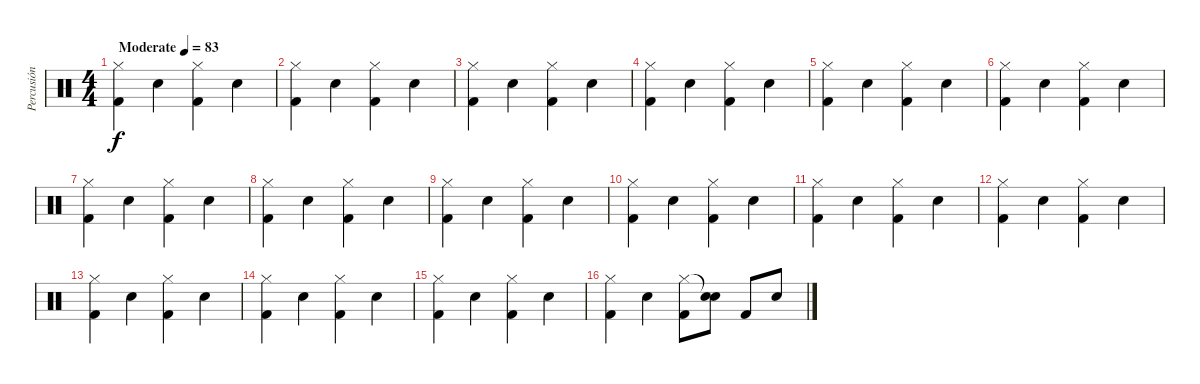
\track ("Percusión" "Percusión") {instrument percussion}
\staff {score}
\articulation defaults
\ts (4 4)
\tempo (83 "Moderate")
\clef neutral
\ks c
("Hi-Hat (closed)" "Kick (hit) 2").4{dy f} "Snare (hit) 2".4 ("Hi-Hat (closed)" "Kick (hit) 2").4 "Snare (hit) 2".4 |
("Hi-Hat (closed)" "Kick (hit) 2").4 "Snare (hit) 2".4 ("Hi-Hat (closed)" "Kick (hit) 2").4 "Snare (hit) 2".4 |
("Hi-Hat (closed)" "Kick (hit) 2").4 "Snare (hit) 2".4 ("Hi-Hat (closed)" "Kick (hit) 2").4 "Snare (hit) 2".4 |
("Hi-Hat (closed)" "Kick (hit) 2").4 "Snare (hit) 2".4 ("Hi-Hat (closed)" "Kick (hit) 2").4 "Snare (hit) 2".4 |
("Hi-Hat (closed)" "Kick (hit) 2").4 "Snare (hit) 2".4 ("Hi-Hat (closed)" "Kick (hit) 2").4 "Snare (hit) 2".4 |
("Hi-Hat (closed)" "Kick (hit) 2").4 "Snare (hit) 2".4 ("Hi-Hat (closed)" "Kick (hit) 2").4 "Snare (hit) 2".4 |
("Hi-Hat (closed)" "Kick (hit) 2").4 "Snare (hit) 2".4 ("Hi-Hat (closed)" "Kick (hit) 2").4 "Snare (hit) 2".4 |
("Hi-Hat (closed)" "Kick (hit) 2").4 "Snare (hit) 2".4 ("Hi-Hat (closed)" "Kick (hit) 2").4 "Snare (hit) 2".4 |
("Hi-Hat (closed)" "Kick (hit) 2").4 "Snare (hit) 2".4 ("Hi-Hat (closed)" "Kick (hit) 2").4 "Snare (hit) 2".4 |
("Hi-Hat (closed)" "Kick (hit) 2").4 "Snare (hit) 2".4 ("Hi-Hat (closed)" "Kick (hit) 2").4 "Snare (hit) 2".4 |
("Hi-Hat (closed)" "Kick (hit) 2").4 "Snare (hit) 2".4 ("Hi-Hat (closed)" "Kick (hit) 2").4 "Snare (hit) 2".4 |
("Hi-Hat (closed)" "Kick (hit) 2").4 "Snare (hit) 2".4 ("Hi-Hat (closed)" "Kick (hit) 2").4 "Snare (hit) 2".4 |
("Hi-Hat (closed)" "Kick (hit) 2").4 "Snare (hit) 2".4 ("Hi-Hat (closed)" "Kick (hit) 2").4 "Snare (hit) 2".4 |
("Hi-Hat (closed)" "Kick (hit) 2").4 "Snare (hit) 2".4 ("Hi-Hat (closed)" "Kick (hit) 2").4 "Snare (hit) 2".4 |
("Hi-Hat (closed)" "Kick (hit) 2").4 "Snare (hit) 2".4 ("Hi-Hat (closed)" "Kick (hit) 2").4 "Snare (hit) 2".4 |
("Hi-Hat (closed)" "Kick (hit) 2").4 "Snare (hit) 2".4 ("Hi-Hat (closed)" "Kick (hit) 2").8 ("Snare (hit)"{t} "Snare (hit) 2").8 "Kick (hit) 2".8 "Snare (hit) 2".8
